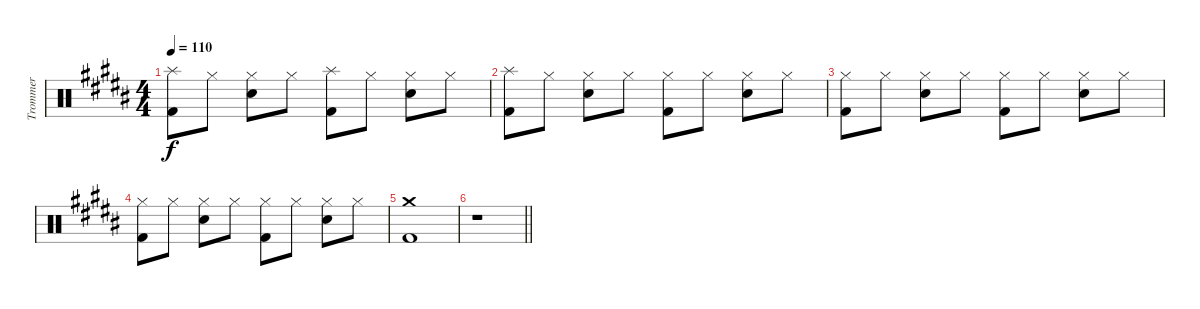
\track ("Trommer" "Trommer") {instrument percussion}
\staff {score}
\articulation defaults
\ts (4 4)
\tempo 110
\clef neutral
\ks b
("Splash (hit)" "Kick (hit) 2").8{dy f} "Hi-Hat (closed)".8 ("Hi-Hat (closed)" "Electric Snare (hit)").8 "Hi-Hat (closed)".8 ("Splash (hit)" "Kick (hit) 2").8 "Hi-Hat (closed)".8 ("Hi-Hat (closed)" "Electric Snare (hit)").8 "Hi-Hat (closed)".8 |
("Splash (hit)" "Kick (hit) 2").8 "Hi-Hat (closed)".8 ("Hi-Hat (closed)" "Electric Snare (hit)").8 "Hi-Hat (closed)".8 ("Hi-Hat (closed)" "Kick (hit) 2").8 "Hi-Hat (closed)".8 ("Hi-Hat (closed)" "Electric Snare (hit)").8 "Hi-Hat (closed)".8 |
("Hi-Hat (closed)" "Kick (hit) 2").8 "Hi-Hat (closed)".8 ("Hi-Hat (closed)" "Electric Snare (hit)").8 "Hi-Hat (closed)".8 ("Hi-Hat (closed)" "Kick (hit) 2").8 "Hi-Hat (closed)".8 ("Hi-Hat (closed)" "Electric Snare (hit)").8 "Hi-Hat (closed)".8 |
("Hi-Hat (closed)" "Kick (hit) 2").8 "Hi-Hat (closed)".8 ("Hi-Hat (closed)" "Electric Snare (hit)").8 "Hi-Hat (closed)".8 ("Hi-Hat (closed)" "Kick (hit) 2").8 "Hi-Hat (closed)".8 ("Hi-Hat (closed)" "Electric Snare (hit)").8 "Hi-Hat (closed)".8 |
("Crash medium (hit)" "Kick (hit) 2").1 |
\barLineRight lightlight
r.1
